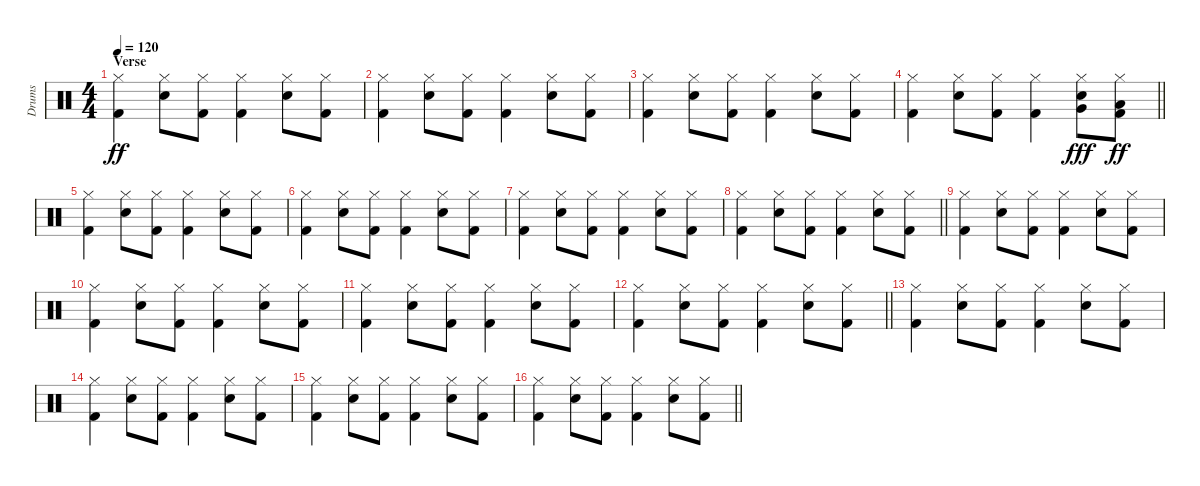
\track ("Drums" "Drums") {instrument percussion}
\staff {score}
\articulation defaults
\ts (4 4)
\section ("" "Verse")
\tempo 120
\clef neutral
\ks c
("Hi-Hat (closed)" "Kick (hit) 2").4{dy ff} ("Hi-Hat (closed)" "Snare (hit) 2").8 ("Hi-Hat (closed)" "Kick (hit) 2").8 ("Hi-Hat (closed)" "Kick (hit) 2").4 ("Hi-Hat (closed)" "Snare (hit) 2").8 ("Hi-Hat (closed)" "Kick (hit) 2").8 |
("Hi-Hat (closed)" "Kick (hit) 2").4 ("Hi-Hat (closed)" "Snare (hit) 2").8 ("Hi-Hat (closed)" "Kick (hit) 2").8 ("Hi-Hat (closed)" "Kick (hit) 2").4 ("Hi-Hat (closed)" "Snare (hit) 2").8 ("Hi-Hat (closed)" "Kick (hit) 2").8 |
("Hi-Hat (closed)" "Kick (hit) 2").4 ("Hi-Hat (closed)" "Snare (hit) 2").8 ("Hi-Hat (closed)" "Kick (hit) 2").8 ("Hi-Hat (closed)" "Kick (hit) 2").4 ("Hi-Hat (closed)" "Snare (hit) 2").8 ("Hi-Hat (closed)" "Kick (hit) 2").8 |
\barLineRight lightlight
("Hi-Hat (closed)" "Kick (hit) 2").4 ("Hi-Hat (closed)" "Snare (hit) 2").8 ("Hi-Hat (closed)" "Kick (hit) 2").8 ("Hi-Hat (closed)" "Kick (hit) 2").4 ("Hi-Hat (closed)" "Snare (hit) 2" "Very Low Tom (hit)").8{dy fff} ("Hi-Hat (closed)" "Low Floor Tom (hit)" "Kick (hit) 2").8{dy ff} |
("Hi-Hat (closed)" "Kick (hit) 2").4 ("Hi-Hat (closed)" "Snare (hit) 2").8 ("Hi-Hat (closed)" "Kick (hit) 2").8 ("Hi-Hat (closed)" "Kick (hit) 2").4 ("Hi-Hat (closed)" "Snare (hit) 2").8 ("Hi-Hat (closed)" "Kick (hit) 2").8 |
("Hi-Hat (closed)" "Kick (hit) 2").4 ("Hi-Hat (closed)" "Snare (hit) 2").8 ("Hi-Hat (closed)" "Kick (hit) 2").8 ("Hi-Hat (closed)" "Kick (hit) 2").4 ("Hi-Hat (closed)" "Snare (hit) 2").8 ("Hi-Hat (closed)" "Kick (hit) 2").8 |
("Hi-Hat (closed)" "Kick (hit) 2").4 ("Hi-Hat (closed)" "Snare (hit) 2").8 ("Hi-Hat (closed)" "Kick (hit) 2").8 ("Hi-Hat (closed)" "Kick (hit) 2").4 ("Hi-Hat (closed)" "Snare (hit) 2").8 ("Hi-Hat (closed)" "Kick (hit) 2").8 |
\barLineRight lightlight
("Hi-Hat (closed)" "Kick (hit) 2").4 ("Hi-Hat (closed)" "Snare (hit) 2").8 ("Hi-Hat (closed)" "Kick (hit) 2").8 ("Hi-Hat (closed)" "Kick (hit) 2").4 ("Hi-Hat (closed)" "Snare (hit) 2").8 ("Hi-Hat (closed)" "Kick (hit) 2").8 |
("Hi-Hat (closed)" "Kick (hit) 2").4 ("Hi-Hat (closed)" "Snare (hit) 2").8 ("Hi-Hat (closed)" "Kick (hit) 2").8 ("Hi-Hat (closed)" "Kick (hit) 2").4 ("Hi-Hat (closed)" "Snare (hit) 2").8 ("Hi-Hat (closed)" "Kick (hit) 2").8 |
("Hi-Hat (closed)" "Kick (hit) 2").4 ("Hi-Hat (closed)" "Snare (hit) 2").8 ("Hi-Hat (closed)" "Kick (hit) 2").8 ("Hi-Hat (closed)" "Kick (hit) 2").4 ("Hi-Hat (closed)" "Snare (hit) 2").8 ("Hi-Hat (closed)" "Kick (hit) 2").8 |
("Hi-Hat (closed)" "Kick (hit) 2").4 ("Hi-Hat (closed)" "Snare (hit) 2").8 ("Hi-Hat (closed)" "Kick (hit) 2").8 ("Hi-Hat (closed)" "Kick (hit) 2").4 ("Hi-Hat (closed)" "Snare (hit) 2").8 ("Hi-Hat (closed)" "Kick (hit) 2").8 |
\barLineRight lightlight
("Hi-Hat (closed)" "Kick (hit) 2").4 ("Hi-Hat (closed)" "Snare (hit) 2").8 ("Hi-Hat (closed)" "Kick (hit) 2").8 ("Hi-Hat (closed)" "Kick (hit) 2").4 ("Hi-Hat (closed)" "Snare (hit) 2").8 ("Hi-Hat (closed)" "Kick (hit) 2").8 |
("Hi-Hat (closed)" "Kick (hit) 2").4 ("Hi-Hat (closed)" "Snare (hit) 2").8 ("Hi-Hat (closed)" "Kick (hit) 2").8 ("Hi-Hat (closed)" "Kick (hit) 2").4 ("Hi-Hat (closed)" "Snare (hit) 2").8 ("Hi-Hat (closed)" "Kick (hit) 2").8 |
("Hi-Hat (closed)" "Kick (hit) 2").4 ("Hi-Hat (closed)" "Snare (hit) 2").8 ("Hi-Hat (closed)" "Kick (hit) 2").8 ("Hi-Hat (closed)" "Kick (hit) 2").4 ("Hi-Hat (closed)" "Snare (hit) 2").8 ("Hi-Hat (closed)" "Kick (hit) 2").8 |
("Hi-Hat (closed)" "Kick (hit) 2").4 ("Hi-Hat (closed)" "Snare (hit) 2").8 ("Hi-Hat (closed)" "Kick (hit) 2").8 ("Hi-Hat (closed)" "Kick (hit) 2").4 ("Hi-Hat (closed)" "Snare (hit) 2").8 ("Hi-Hat (closed)" "Kick (hit) 2").8 |
\barLineRight lightlight
("Hi-Hat (closed)" "Kick (hit) 2").4 ("Hi-Hat (closed)" "Snare (hit) 2").8 ("Hi-Hat (closed)" "Kick (hit) 2").8 ("Hi-Hat (closed)" "Kick (hit) 2").4 ("Hi-Hat (closed)" "Snare (hit) 2").8 ("Hi-Hat (closed)" "Kick (hit) 2").8
